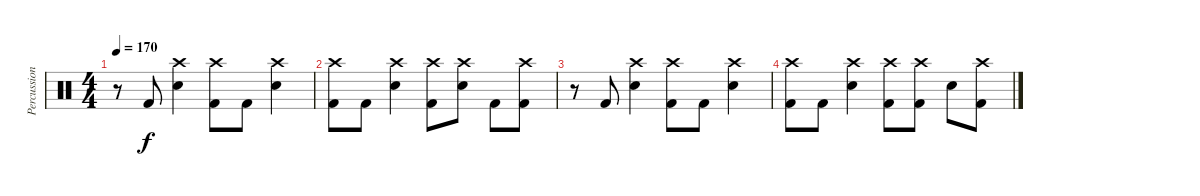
\track ("Percussion" "Percussion") {instrument percussion}
\staff {score}
\articulation defaults
\ts (4 4)
\tempo 170
\clef neutral
\ks c
r.8{dy f} "Kick (hit) 2".8 ("Crash high (hit)" "Snare (hit) 2").4 ("Crash high (hit)" "Kick (hit) 2").8 "Kick (hit) 2".8 ("Crash high (hit)" "Snare (hit) 2").4 |
("Crash high (hit)" "Kick (hit) 2").8 "Kick (hit) 2".8 ("Crash high (hit)" "Snare (hit) 2").4 ("Crash high (hit)" "Kick (hit) 2").8 ("Crash high (hit)" "Snare (hit) 2").8 "Kick (hit) 2".8 ("Crash high (hit)" "Kick (hit) 2").8 |
r.8 "Kick (hit) 2".8 ("Crash high (hit)" "Snare (hit) 2").4 ("Crash high (hit)" "Kick (hit) 2").8 "Kick (hit) 2".8 ("Crash high (hit)" "Snare (hit) 2").4 |
("Crash high (hit)" "Kick (hit) 2").8 "Kick (hit) 2".8 ("Crash high (hit)" "Snare (hit) 2").4 ("Crash high (hit)" "Kick (hit) 2").8 ("Crash high (hit)" "Kick (hit) 2").8 "Snare (hit) 2".8 ("Crash high (hit)" "Kick (hit) 2").8
